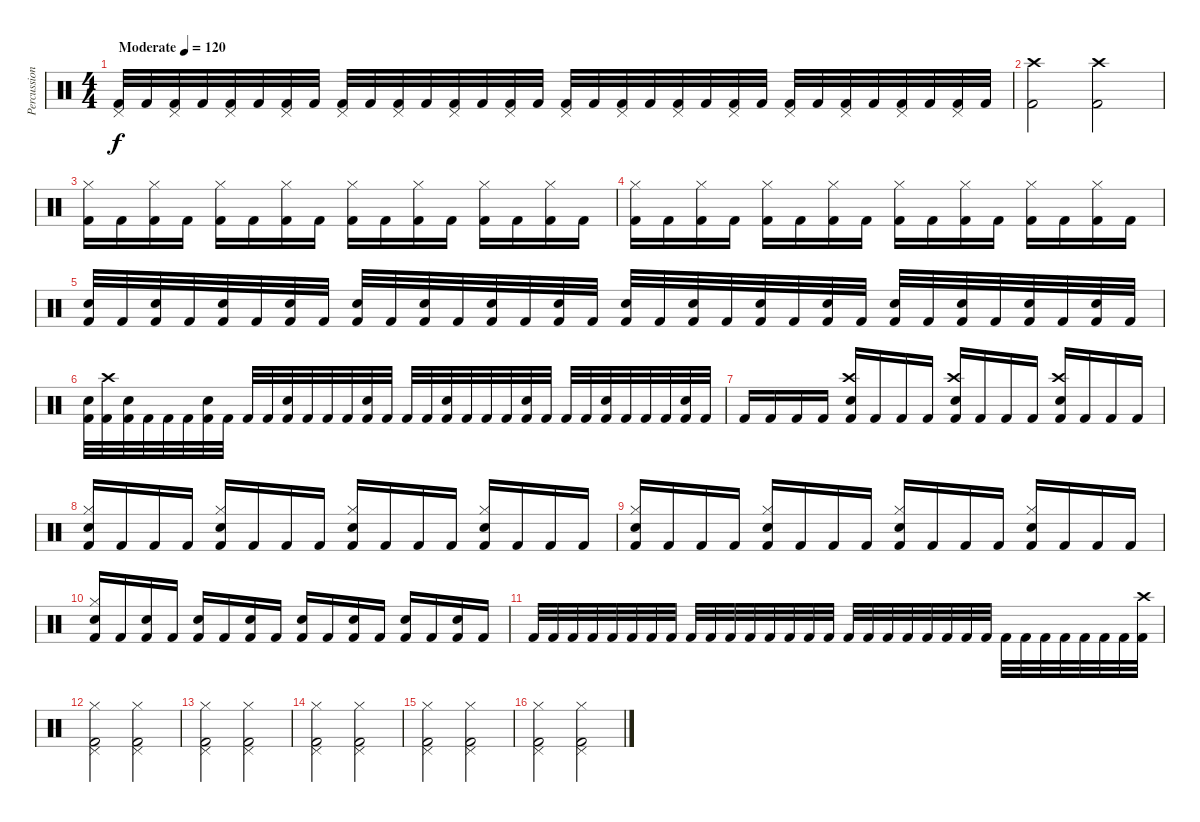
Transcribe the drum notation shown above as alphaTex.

\track ("Percussion" "Percussion") {instrument percussion}
\staff {score}
\articulation defaults
\ts (4 4)
\tempo (120 "Moderate")
\clef neutral
\ks c
("Pedal Hi-Hat (hit)" "Kick (hit) 2").32{dy f} "Kick (hit) 2".32 ("Pedal Hi-Hat (hit)" "Kick (hit) 2").32 "Kick (hit) 2".32 ("Pedal Hi-Hat (hit)" "Kick (hit) 2").32 "Kick (hit) 2".32 ("Pedal Hi-Hat (hit)" "Kick (hit) 2").32 "Kick (hit) 2".32 ("Pedal Hi-Hat (hit)" "Kick (hit) 2").32 "Kick (hit) 2".32 ("Pedal Hi-Hat (hit)" "Kick (hit) 2").32 "Kick (hit) 2".32 ("Pedal Hi-Hat (hit)" "Kick (hit) 2").32 "Kick (hit) 2".32 ("Pedal Hi-Hat (hit)" "Kick (hit) 2").32 "Kick (hit) 2".32 ("Pedal Hi-Hat (hit)" "Kick (hit) 2").32 "Kick (hit) 2".32 ("Pedal Hi-Hat (hit)" "Kick (hit) 2").32 "Kick (hit) 2".32 ("Pedal Hi-Hat (hit)" "Kick (hit) 2").32 "Kick (hit) 2".32 ("Pedal Hi-Hat (hit)" "Kick (hit) 2").32 "Kick (hit) 2".32 ("Pedal Hi-Hat (hit)" "Kick (hit) 2").32 "Kick (hit) 2".32 ("Pedal Hi-Hat (hit)" "Kick (hit) 2").32 "Kick (hit) 2".32 ("Pedal Hi-Hat (hit)" "Kick (hit) 2").32 "Kick (hit) 2".32 ("Pedal Hi-Hat (hit)" "Kick (hit) 2").32 "Kick (hit) 2".32 |
("Crash high (hit)" "Kick (hit) 2").2 ("Crash high (hit)" "Kick (hit) 2").2 |
("Hi-Hat (closed)" "Kick (hit) 2").16 "Kick (hit) 2".16 ("Hi-Hat (closed)" "Kick (hit) 2").16 "Kick (hit) 2".16 ("Hi-Hat (closed)" "Kick (hit) 2").16 "Kick (hit) 2".16 ("Hi-Hat (closed)" "Kick (hit) 2").16 "Kick (hit) 2".16 ("Hi-Hat (closed)" "Kick (hit) 2").16 "Kick (hit) 2".16 ("Hi-Hat (closed)" "Kick (hit) 2").16 "Kick (hit) 2".16 ("Hi-Hat (closed)" "Kick (hit) 2").16 "Kick (hit) 2".16 ("Hi-Hat (closed)" "Kick (hit) 2").16 "Kick (hit) 2".16 |
("Hi-Hat (closed)" "Kick (hit) 2").16 "Kick (hit) 2".16 ("Hi-Hat (closed)" "Kick (hit) 2").16 "Kick (hit) 2".16 ("Hi-Hat (closed)" "Kick (hit) 2").16 "Kick (hit) 2".16 ("Hi-Hat (closed)" "Kick (hit) 2").16 "Kick (hit) 2".16 ("Hi-Hat (closed)" "Kick (hit) 2").16 "Kick (hit) 2".16 ("Hi-Hat (closed)" "Kick (hit) 2").16 "Kick (hit) 2".16 ("Hi-Hat (closed)" "Kick (hit) 2").16 "Kick (hit) 2".16 ("Hi-Hat (closed)" "Kick (hit) 2").16 "Kick (hit) 2".16 |
("Snare (hit) 2" "Kick (hit) 2").32 "Kick (hit) 2".32 ("Snare (hit) 2" "Kick (hit) 2").32 "Kick (hit) 2".32 ("Snare (hit) 2" "Kick (hit) 2").32 "Kick (hit) 2".32 ("Snare (hit) 2" "Kick (hit) 2").32 "Kick (hit) 2".32 ("Snare (hit) 2" "Kick (hit) 2").32 "Kick (hit) 2".32 ("Snare (hit) 2" "Kick (hit) 2").32 "Kick (hit) 2".32 ("Snare (hit) 2" "Kick (hit) 2").32 "Kick (hit) 2".32 ("Snare (hit) 2" "Kick (hit) 2").32 "Kick (hit) 2".32 ("Snare (hit) 2" "Kick (hit) 2").32 "Kick (hit) 2".32 ("Snare (hit) 2" "Kick (hit) 2").32 "Kick (hit) 2".32 ("Snare (hit) 2" "Kick (hit) 2").32 "Kick (hit) 2".32 ("Snare (hit) 2" "Kick (hit) 2").32 "Kick (hit) 2".32 ("Snare (hit) 2" "Kick (hit) 2").32 "Kick (hit) 2".32 ("Snare (hit) 2" "Kick (hit) 2").32 "Kick (hit) 2".32 ("Snare (hit) 2" "Kick (hit) 2").32 "Kick (hit) 2".32 ("Snare (hit) 2" "Kick (hit) 2").32 "Kick (hit) 2".32 |
("Snare (hit) 2" "Kick (hit) 2").32 ("Crash high (hit)" "Kick (hit) 2").32 ("Snare (hit) 2" "Kick (hit) 2").32 "Kick (hit) 2".32 "Kick (hit) 2".32 "Kick (hit) 2".32 ("Snare (hit) 2" "Kick (hit) 2").32 "Kick (hit) 2".32 "Kick (hit) 2".32 "Kick (hit) 2".32 ("Snare (hit) 2" "Kick (hit) 2").32 "Kick (hit) 2".32 "Kick (hit) 2".32 "Kick (hit) 2".32 ("Snare (hit) 2" "Kick (hit) 2").32 "Kick (hit) 2".32 "Kick (hit) 2".32 "Kick (hit) 2".32 ("Snare (hit) 2" "Kick (hit) 2").32 "Kick (hit) 2".32 "Kick (hit) 2".32 "Kick (hit) 2".32 ("Snare (hit) 2" "Kick (hit) 2").32 "Kick (hit) 2".32 "Kick (hit) 2".32 "Kick (hit) 2".32 ("Snare (hit) 2" "Kick (hit) 2").32 "Kick (hit) 2".32 "Kick (hit) 2".32 "Kick (hit) 2".32 ("Snare (hit) 2" "Kick (hit) 2").32 "Kick (hit) 2".32 |
"Kick (hit) 2".16 "Kick (hit) 2".16 "Kick (hit) 2".16 "Kick (hit) 2".16 ("Crash high (hit)" "Snare (hit) 2" "Kick (hit) 2").16 "Kick (hit) 2".16 "Kick (hit) 2".16 "Kick (hit) 2".16 ("Crash high (hit)" "Snare (hit) 2" "Kick (hit) 2").16 "Kick (hit) 2".16 "Kick (hit) 2".16 "Kick (hit) 2".16 ("Crash high (hit)" "Snare (hit) 2" "Kick (hit) 2").16 "Kick (hit) 2".16 "Kick (hit) 2".16 "Kick (hit) 2".16 |
("Hi-Hat (closed)" "Snare (hit) 2" "Kick (hit) 2").16 "Kick (hit) 2".16 "Kick (hit) 2".16 "Kick (hit) 2".16 ("Hi-Hat (closed)" "Snare (hit) 2" "Kick (hit) 2").16 "Kick (hit) 2".16 "Kick (hit) 2".16 "Kick (hit) 2".16 ("Hi-Hat (closed)" "Snare (hit) 2" "Kick (hit) 2").16 "Kick (hit) 2".16 "Kick (hit) 2".16 "Kick (hit) 2".16 ("Hi-Hat (closed)" "Snare (hit) 2" "Kick (hit) 2").16 "Kick (hit) 2".16 "Kick (hit) 2".16 "Kick (hit) 2".16 |
("Hi-Hat (closed)" "Snare (hit) 2" "Kick (hit) 2").16 "Kick (hit) 2".16 "Kick (hit) 2".16 "Kick (hit) 2".16 ("Hi-Hat (closed)" "Snare (hit) 2" "Kick (hit) 2").16 "Kick (hit) 2".16 "Kick (hit) 2".16 "Kick (hit) 2".16 ("Hi-Hat (closed)" "Snare (hit) 2" "Kick (hit) 2").16 "Kick (hit) 2".16 "Kick (hit) 2".16 "Kick (hit) 2".16 ("Hi-Hat (closed)" "Snare (hit) 2" "Kick (hit) 2").16 "Kick (hit) 2".16 "Kick (hit) 2".16 "Kick (hit) 2".16 |
("Hi-Hat (closed)" "Snare (hit) 2" "Kick (hit) 2").16 "Kick (hit) 2".16 ("Snare (hit) 2" "Kick (hit) 2").16 "Kick (hit) 2".16 ("Snare (hit) 2" "Kick (hit) 2").16 "Kick (hit) 2".16 ("Snare (hit) 2" "Kick (hit) 2").16 "Kick (hit) 2".16 ("Snare (hit) 2" "Kick (hit) 2").16 "Kick (hit) 2".16 ("Snare (hit) 2" "Kick (hit) 2").16 "Kick (hit) 2".16 ("Snare (hit) 2" "Kick (hit) 2").16 "Kick (hit) 2".16 ("Snare (hit) 2" "Kick (hit) 2").16 "Kick (hit) 2".16 |
"Kick (hit) 2".32 "Kick (hit) 2".32 "Kick (hit) 2".32 "Kick (hit) 2".32 "Kick (hit) 2".32 "Kick (hit) 2".32 "Kick (hit) 2".32 "Kick (hit) 2".32 "Kick (hit) 2".32 "Kick (hit) 2".32 "Kick (hit) 2".32 "Kick (hit) 2".32 "Kick (hit) 2".32 "Kick (hit) 2".32 "Kick (hit) 2".32 "Kick (hit) 2".32 "Kick (hit) 2".32 "Kick (hit) 2".32 "Kick (hit) 2".32 "Kick (hit) 2".32 "Kick (hit) 2".32 "Kick (hit) 2".32 "Kick (hit) 2".32 "Kick (hit) 2".32 "Kick (hit) 2".32 "Kick (hit) 2".32 "Kick (hit) 2".32 "Kick (hit) 2".32 "Kick (hit) 2".32 "Kick (hit) 2".32 "Kick (hit) 2".32 ("Crash high (hit)" "Kick (hit) 2").32 |
("Pedal Hi-Hat (hit)" "Hi-Hat (closed)" "Kick (hit) 2").2 ("Pedal Hi-Hat (hit)" "Hi-Hat (closed)" "Kick (hit) 2").2 |
("Pedal Hi-Hat (hit)" "Hi-Hat (closed)" "Kick (hit) 2").2 ("Pedal Hi-Hat (hit)" "Hi-Hat (closed)" "Kick (hit) 2").2 |
("Pedal Hi-Hat (hit)" "Hi-Hat (closed)" "Kick (hit) 2").2 ("Pedal Hi-Hat (hit)" "Hi-Hat (closed)" "Kick (hit) 2").2 |
("Pedal Hi-Hat (hit)" "Hi-Hat (closed)" "Kick (hit) 2").2 ("Pedal Hi-Hat (hit)" "Hi-Hat (closed)" "Kick (hit) 2").2 |
("Pedal Hi-Hat (hit)" "Hi-Hat (closed)" "Kick (hit) 2").2 ("Pedal Hi-Hat (hit)" "Hi-Hat (closed)" "Kick (hit) 2").2
